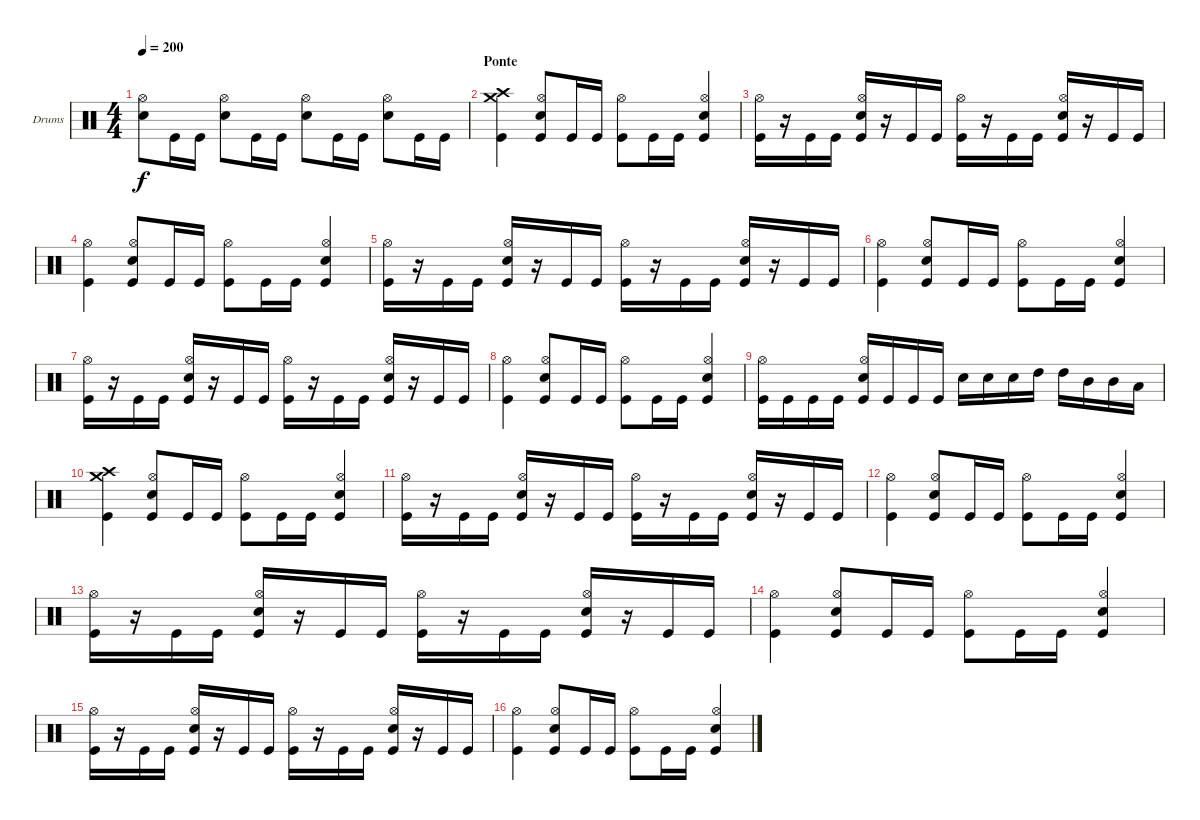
\defaultSystemsLayout 4
\bracketExtendMode groupsimilarinstruments
\firstSystemTrackNameOrientation horizontal
\otherSystemsTrackNameOrientation horizontal
\track ("Drumkit" "Drums") {instrument percussion}
\staff {score}
\articulation defaults
\ts (4 4)
\tempo 200
\clef neutral
\ks c
("Snare (hit) 2" "Hi-Hat (open)").8{dy f} "Kick (hit)".16 "Kick (hit)".16 ("Snare (hit) 2" "Hi-Hat (open)").8 "Kick (hit)".16 "Kick (hit)".16 ("Snare (hit) 2" "Hi-Hat (open)").8 "Kick (hit)".16 "Kick (hit)".16 ("Snare (hit) 2" "Hi-Hat (open)").8 "Kick (hit)".16 "Kick (hit)".16 |
\section ("" "Ponte")
("Crash medium (hit)" "Crash high (hit)" "Kick (hit)").4 ("Hi-Hat (open)" "Snare (hit) 2" "Kick (hit)").8 "Kick (hit)".16 "Kick (hit)".16 ("Hi-Hat (open)" "Kick (hit)").8 "Kick (hit)".16 "Kick (hit)".16 ("Hi-Hat (open)" "Snare (hit) 2" "Kick (hit)").4 |
("Hi-Hat (open)" "Kick (hit)").16 r.16 "Kick (hit)".16 "Kick (hit)".16 ("Hi-Hat (open)" "Snare (hit) 2" "Kick (hit)").16 r.16 "Kick (hit)".16 "Kick (hit)".16 ("Hi-Hat (open)" "Kick (hit)").16 r.16 "Kick (hit)".16 "Kick (hit)".16 ("Hi-Hat (open)" "Snare (hit) 2" "Kick (hit)").16 r.16 "Kick (hit)".16 "Kick (hit)".16 |
("Hi-Hat (open)" "Kick (hit)").4 ("Hi-Hat (open)" "Snare (hit) 2" "Kick (hit)").8 "Kick (hit)".16 "Kick (hit)".16 ("Hi-Hat (open)" "Kick (hit)").8 "Kick (hit)".16 "Kick (hit)".16 ("Hi-Hat (open)" "Snare (hit) 2" "Kick (hit)").4 |
("Hi-Hat (open)" "Kick (hit)").16 r.16 "Kick (hit)".16 "Kick (hit)".16 ("Hi-Hat (open)" "Snare (hit) 2" "Kick (hit)").16 r.16 "Kick (hit)".16 "Kick (hit)".16 ("Hi-Hat (open)" "Kick (hit)").16 r.16 "Kick (hit)".16 "Kick (hit)".16 ("Hi-Hat (open)" "Snare (hit) 2" "Kick (hit)").16 r.16 "Kick (hit)".16 "Kick (hit)".16 |
("Hi-Hat (open)" "Kick (hit)").4 ("Hi-Hat (open)" "Snare (hit) 2" "Kick (hit)").8 "Kick (hit)".16 "Kick (hit)".16 ("Hi-Hat (open)" "Kick (hit)").8 "Kick (hit)".16 "Kick (hit)".16 ("Hi-Hat (open)" "Snare (hit) 2" "Kick (hit)").4 |
("Hi-Hat (open)" "Kick (hit)").16 r.16 "Kick (hit)".16 "Kick (hit)".16 ("Hi-Hat (open)" "Snare (hit) 2" "Kick (hit)").16 r.16 "Kick (hit)".16 "Kick (hit)".16 ("Hi-Hat (open)" "Kick (hit)").16 r.16 "Kick (hit)".16 "Kick (hit)".16 ("Hi-Hat (open)" "Snare (hit) 2" "Kick (hit)").16 r.16 "Kick (hit)".16 "Kick (hit)".16 |
("Hi-Hat (open)" "Kick (hit)").4 ("Hi-Hat (open)" "Snare (hit) 2" "Kick (hit)").8 "Kick (hit)".16 "Kick (hit)".16 ("Hi-Hat (open)" "Kick (hit)").8 "Kick (hit)".16 "Kick (hit)".16 ("Hi-Hat (open)" "Snare (hit) 2" "Kick (hit)").4 |
("Hi-Hat (open)" "Kick (hit)").16 "Kick (hit)".16 "Kick (hit)".16 "Kick (hit)".16 ("Hi-Hat (open)" "Snare (hit) 2" "Kick (hit)").16 "Kick (hit)".16 "Kick (hit)".16 "Kick (hit)".16 "Snare (hit) 2".16 "Snare (hit) 2".16 "Snare (hit) 2".16 "High Tom (hit)".16 "High Tom (hit)".16 "Mid Tom (hit)".16 "Mid Tom (hit)".16 "Low Tom (hit)".16 |
("Crash medium (hit)" "Crash high (hit)" "Kick (hit)").4 ("Hi-Hat (open)" "Snare (hit) 2" "Kick (hit)").8 "Kick (hit)".16 "Kick (hit)".16 ("Hi-Hat (open)" "Kick (hit)").8 "Kick (hit)".16 "Kick (hit)".16 ("Hi-Hat (open)" "Snare (hit) 2" "Kick (hit)").4 |
("Hi-Hat (open)" "Kick (hit)").16 r.16 "Kick (hit)".16 "Kick (hit)".16 ("Hi-Hat (open)" "Snare (hit) 2" "Kick (hit)").16 r.16 "Kick (hit)".16 "Kick (hit)".16 ("Hi-Hat (open)" "Kick (hit)").16 r.16 "Kick (hit)".16 "Kick (hit)".16 ("Hi-Hat (open)" "Snare (hit) 2" "Kick (hit)").16 r.16 "Kick (hit)".16 "Kick (hit)".16 |
("Hi-Hat (open)" "Kick (hit)").4 ("Hi-Hat (open)" "Snare (hit) 2" "Kick (hit)").8 "Kick (hit)".16 "Kick (hit)".16 ("Hi-Hat (open)" "Kick (hit)").8 "Kick (hit)".16 "Kick (hit)".16 ("Hi-Hat (open)" "Snare (hit) 2" "Kick (hit)").4 |
("Hi-Hat (open)" "Kick (hit)").16 r.16 "Kick (hit)".16 "Kick (hit)".16 ("Hi-Hat (open)" "Snare (hit) 2" "Kick (hit)").16 r.16 "Kick (hit)".16 "Kick (hit)".16 ("Hi-Hat (open)" "Kick (hit)").16 r.16 "Kick (hit)".16 "Kick (hit)".16 ("Hi-Hat (open)" "Snare (hit) 2" "Kick (hit)").16 r.16 "Kick (hit)".16 "Kick (hit)".16 |
("Hi-Hat (open)" "Kick (hit)").4 ("Hi-Hat (open)" "Snare (hit) 2" "Kick (hit)").8 "Kick (hit)".16 "Kick (hit)".16 ("Hi-Hat (open)" "Kick (hit)").8 "Kick (hit)".16 "Kick (hit)".16 ("Hi-Hat (open)" "Snare (hit) 2" "Kick (hit)").4 |
("Hi-Hat (open)" "Kick (hit)").16 r.16 "Kick (hit)".16 "Kick (hit)".16 ("Hi-Hat (open)" "Snare (hit) 2" "Kick (hit)").16 r.16 "Kick (hit)".16 "Kick (hit)".16 ("Hi-Hat (open)" "Kick (hit)").16 r.16 "Kick (hit)".16 "Kick (hit)".16 ("Hi-Hat (open)" "Snare (hit) 2" "Kick (hit)").16 r.16 "Kick (hit)".16 "Kick (hit)".16 |
("Hi-Hat (open)" "Kick (hit)").4 ("Hi-Hat (open)" "Snare (hit) 2" "Kick (hit)").8 "Kick (hit)".16 "Kick (hit)".16 ("Hi-Hat (open)" "Kick (hit)").8 "Kick (hit)".16 "Kick (hit)".16 ("Hi-Hat (open)" "Snare (hit) 2" "Kick (hit)").4
